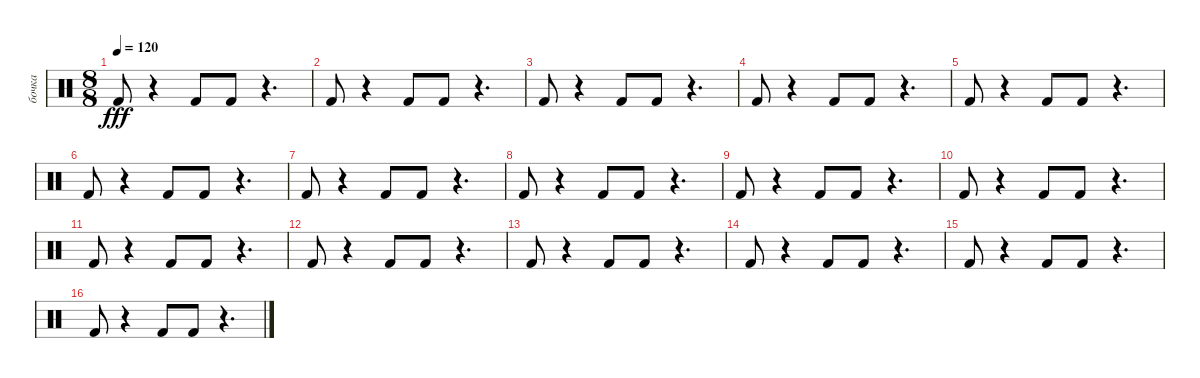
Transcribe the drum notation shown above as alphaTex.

\track ("бочка" "бочка") {instrument percussion}
\staff {score}
\articulation defaults
\ts (8 8)
\tempo 120
\clef neutral
\ks c "Kick (hit) 2".8{dy fff}
r.4 "Kick (hit) 2".8 "Kick (hit) 2".8 r.4{d} |
"Kick (hit) 2".8 r.4 "Kick (hit) 2".8 "Kick (hit) 2".8 r.4{d} |
"Kick (hit) 2".8 r.4 "Kick (hit) 2".8 "Kick (hit) 2".8 r.4{d} |
"Kick (hit) 2".8 r.4 "Kick (hit) 2".8 "Kick (hit) 2".8 r.4{d} |
"Kick (hit) 2".8 r.4 "Kick (hit) 2".8 "Kick (hit) 2".8 r.4{d} |
"Kick (hit) 2".8 r.4 "Kick (hit) 2".8 "Kick (hit) 2".8 r.4{d} |
"Kick (hit) 2".8 r.4 "Kick (hit) 2".8 "Kick (hit) 2".8 r.4{d} |
"Kick (hit) 2".8 r.4 "Kick (hit) 2".8 "Kick (hit) 2".8 r.4{d} |
"Kick (hit) 2".8 r.4 "Kick (hit) 2".8 "Kick (hit) 2".8 r.4{d} |
"Kick (hit) 2".8 r.4 "Kick (hit) 2".8 "Kick (hit) 2".8 r.4{d} |
"Kick (hit) 2".8 r.4 "Kick (hit) 2".8 "Kick (hit) 2".8 r.4{d} |
"Kick (hit) 2".8 r.4 "Kick (hit) 2".8 "Kick (hit) 2".8 r.4{d} |
"Kick (hit) 2".8 r.4 "Kick (hit) 2".8 "Kick (hit) 2".8 r.4{d} |
"Kick (hit) 2".8 r.4 "Kick (hit) 2".8 "Kick (hit) 2".8 r.4{d} |
"Kick (hit) 2".8 r.4 "Kick (hit) 2".8 "Kick (hit) 2".8 r.4{d} |
"Kick (hit) 2".8 r.4 "Kick (hit) 2".8 "Kick (hit) 2".8 r.4{d}
